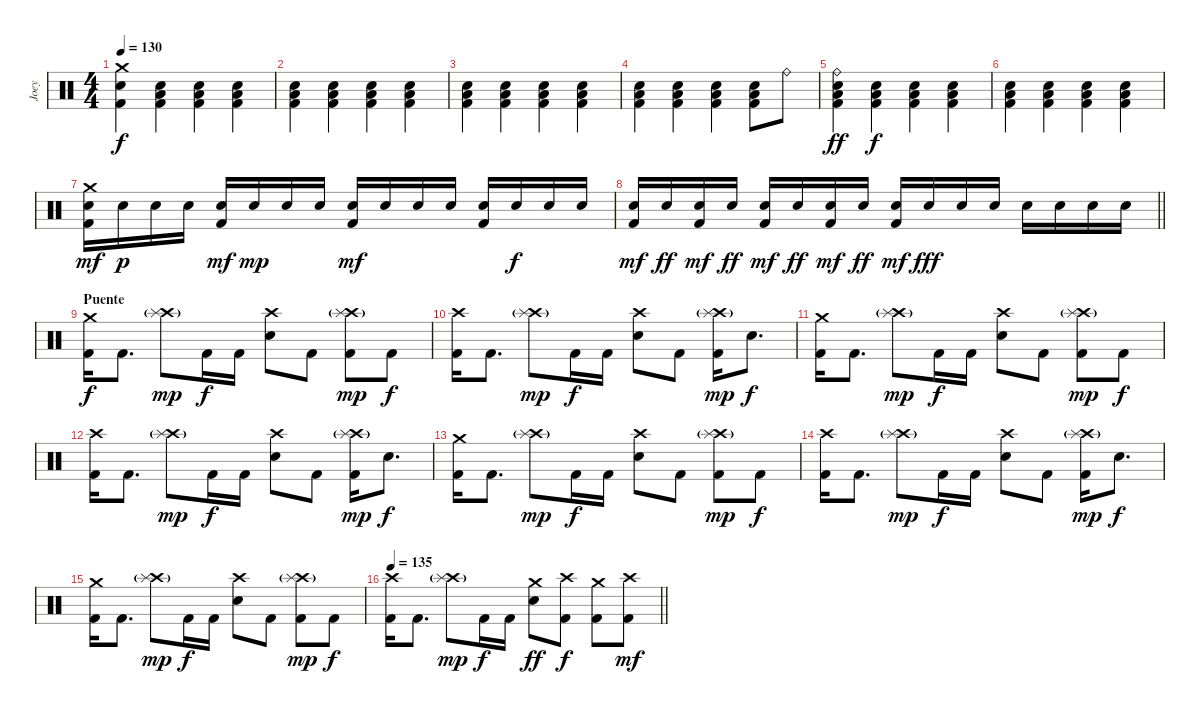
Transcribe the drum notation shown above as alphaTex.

\track ("Joey" "Joey") {instrument percussion}
\staff {score}
\articulation defaults
\ts (4 4)
\section ("" "")
\tempo 130
\clef neutral
\ks c
("Crash medium (hit)" "Electric Snare (hit)" "Kick (hit) 2").4{dy f} ("Low Floor Tom (hit)" "Electric Snare (hit)" "Kick (hit) 2").4 ("Low Floor Tom (hit)" "Electric Snare (hit)" "Kick (hit) 2").4 ("Low Floor Tom (hit)" "Electric Snare (hit)" "Kick (hit) 2").4 |
("Low Floor Tom (hit)" "Electric Snare (hit)" "Kick (hit) 2").4 ("Low Floor Tom (hit)" "Electric Snare (hit)" "Kick (hit) 2").4 ("Low Floor Tom (hit)" "Electric Snare (hit)" "Kick (hit) 2").4 ("Low Floor Tom (hit)" "Electric Snare (hit)" "Kick (hit) 2").4 |
("Low Floor Tom (hit)" "Electric Snare (hit)" "Kick (hit) 2").4 ("Low Floor Tom (hit)" "Electric Snare (hit)" "Kick (hit) 2").4 ("Low Floor Tom (hit)" "Electric Snare (hit)" "Kick (hit) 2").4 ("Low Floor Tom (hit)" "Electric Snare (hit)" "Kick (hit) 2").4 |
("Low Floor Tom (hit)" "Electric Snare (hit)" "Kick (hit) 2").4 ("Low Floor Tom (hit)" "Electric Snare (hit)" "Kick (hit) 2").4 ("Low Floor Tom (hit)" "Electric Snare (hit)" "Kick (hit) 2").4 ("Low Floor Tom (hit)" "Electric Snare (hit)" "Kick (hit) 2").8 "Ride (bell)".8 |
("Ride (bell)" "Low Floor Tom (hit)" "Electric Snare (hit)" "Kick (hit) 2").4{dy ff} ("Low Floor Tom (hit)" "Electric Snare (hit)" "Kick (hit) 2").4{dy f} ("Low Floor Tom (hit)" "Electric Snare (hit)" "Kick (hit) 2").4 ("Low Floor Tom (hit)" "Electric Snare (hit)" "Kick (hit) 2").4 |
("Low Floor Tom (hit)" "Electric Snare (hit)" "Kick (hit) 2").4 ("Low Floor Tom (hit)" "Electric Snare (hit)" "Kick (hit) 2").4 ("Low Floor Tom (hit)" "Electric Snare (hit)" "Kick (hit) 2").4 ("Low Floor Tom (hit)" "Electric Snare (hit)" "Kick (hit) 2").4 |
("Crash medium (hit)" "Electric Snare (hit)" "Kick (hit) 2").16{dy mf} "Electric Snare (hit)".16{dy p} "Electric Snare (hit)".16 "Electric Snare (hit)".16 ("Electric Snare (hit)" "Kick (hit) 2").16{dy mf} "Electric Snare (hit)".16{dy mp} "Electric Snare (hit)".16 "Electric Snare (hit)".16 ("Electric Snare (hit)" "Kick (hit) 2").16{dy mf} "Electric Snare (hit)".16 "Electric Snare (hit)".16 "Electric Snare (hit)".16 ("Electric Snare (hit)" "Kick (hit) 2").16 "Electric Snare (hit)".16{dy f} "Electric Snare (hit)".16 "Electric Snare (hit)".16 |
\barLineRight lightlight
("Electric Snare (hit)" "Kick (hit) 2").16{dy mf} "Electric Snare (hit)".16{dy ff} ("Electric Snare (hit)" "Kick (hit) 2").16{dy mf} "Electric Snare (hit)".16{dy ff} ("Electric Snare (hit)" "Kick (hit) 2").16{dy mf} "Electric Snare (hit)".16{dy ff} ("Electric Snare (hit)" "Kick (hit) 2").16{dy mf} "Electric Snare (hit)".16{dy ff} ("Electric Snare (hit)" "Kick (hit) 2").16{dy mf} "Electric Snare (hit)".16{dy fff} "Electric Snare (hit)".16 "Electric Snare (hit)".16 "Electric Snare (hit)".16 "Electric Snare (hit)".16 "Electric Snare (hit)".16 "Electric Snare (hit)".16 |
\section ("" "Puente")
("Crash medium (hit)" "Kick (hit) 2").16{dy f} "Kick (hit) 2".8{d} ("Crash high (hit)" "Splash (hit)"{g}).8{dy mp} "Kick (hit) 2".16{dy f} "Kick (hit) 2".16 ("Crash high (hit)" "Electric Snare (hit)").8 "Kick (hit) 2".8 ("Crash high (hit)" "Splash (hit)"{g} "Kick (hit) 2").8{dy mp} "Kick (hit) 2".8{dy f} |
("Crash high (hit)" "Kick (hit) 2").16 "Kick (hit) 2".8{d} ("Crash high (hit)" "Splash (hit)"{g}).8{dy mp} "Kick (hit) 2".16{dy f} "Kick (hit) 2".16 ("Crash high (hit)" "Electric Snare (hit)").8 "Kick (hit) 2".8 ("Crash high (hit)" "Splash (hit)"{g} "Kick (hit) 2").16{dy mp} "Electric Snare (hit)".8{d dy f} |
("Crash medium (hit)" "Kick (hit) 2").16 "Kick (hit) 2".8{d} ("Crash high (hit)" "Splash (hit)"{g}).8{dy mp} "Kick (hit) 2".16{dy f} "Kick (hit) 2".16 ("Crash high (hit)" "Electric Snare (hit)").8 "Kick (hit) 2".8 ("Crash high (hit)" "Splash (hit)"{g} "Kick (hit) 2").8{dy mp} "Kick (hit) 2".8{dy f} |
("Crash high (hit)" "Kick (hit) 2").16 "Kick (hit) 2".8{d} ("Crash high (hit)" "Splash (hit)"{g}).8{dy mp} "Kick (hit) 2".16{dy f} "Kick (hit) 2".16 ("Crash high (hit)" "Electric Snare (hit)").8 "Kick (hit) 2".8 ("Crash high (hit)" "Splash (hit)"{g} "Kick (hit) 2").16{dy mp} "Electric Snare (hit)".8{d dy f} |
("Crash medium (hit)" "Kick (hit) 2").16 "Kick (hit) 2".8{d} ("Crash high (hit)" "Splash (hit)"{g}).8{dy mp} "Kick (hit) 2".16{dy f} "Kick (hit) 2".16 ("Crash high (hit)" "Electric Snare (hit)").8 "Kick (hit) 2".8 ("Crash high (hit)" "Splash (hit)"{g} "Kick (hit) 2").8{dy mp} "Kick (hit) 2".8{dy f} |
("Crash high (hit)" "Kick (hit) 2").16 "Kick (hit) 2".8{d} ("Crash high (hit)" "Splash (hit)"{g}).8{dy mp} "Kick (hit) 2".16{dy f} "Kick (hit) 2".16 ("Crash high (hit)" "Electric Snare (hit)").8 "Kick (hit) 2".8 ("Crash high (hit)" "Splash (hit)"{g} "Kick (hit) 2").16{dy mp} "Electric Snare (hit)".8{d dy f} |
("Crash medium (hit)" "Kick (hit) 2").16 "Kick (hit) 2".8{d} ("Crash high (hit)" "Splash (hit)"{g}).8{dy mp} "Kick (hit) 2".16{dy f} "Kick (hit) 2".16 ("Crash high (hit)" "Electric Snare (hit)").8 "Kick (hit) 2".8 ("Crash high (hit)" "Splash (hit)"{g} "Kick (hit) 2").8{dy mp} "Kick (hit) 2".8{dy f} |
\tempo 135
\barLineRight lightlight
("Crash high (hit)" "Kick (hit) 2").16 "Kick (hit) 2".8{d} ("Crash high (hit)" "Splash (hit)"{g}).8{dy mp} "Kick (hit) 2".16{dy f} "Kick (hit) 2".16 ("Crash medium (hit)" "Electric Snare (hit)").8{dy ff} ("Crash high (hit)" "Kick (hit) 2").8{dy f} ("Crash medium (hit)" "Kick (hit) 2").8 ("Crash high (hit)" "Kick (hit) 2").8{dy mf}
